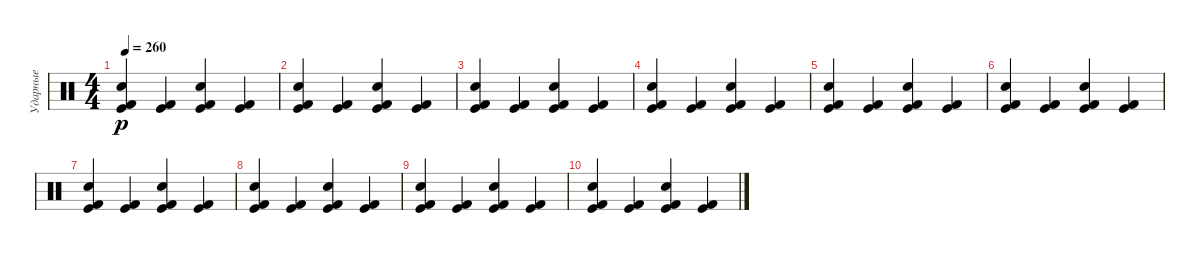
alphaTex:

\track ("Ударные" "Ударные") {instrument percussion}
\staff {score}
\articulation defaults
\ts (4 4)
\tempo 260
\clef neutral
\ks c
("Kick (hit) 2" "Kick (hit)" "Snare (hit) 2").4{dy p} ("Kick (hit)" "Kick (hit) 2").4 ("Kick (hit) 2" "Kick (hit)" "Snare (hit) 2").4 ("Kick (hit)" "Kick (hit) 2").4 |
("Kick (hit) 2" "Kick (hit)" "Snare (hit) 2").4 ("Kick (hit)" "Kick (hit) 2").4 ("Kick (hit) 2" "Kick (hit)" "Snare (hit) 2").4 ("Kick (hit)" "Kick (hit) 2").4 |
("Kick (hit) 2" "Kick (hit)" "Snare (hit) 2").4 ("Kick (hit)" "Kick (hit) 2").4 ("Kick (hit) 2" "Kick (hit)" "Snare (hit) 2").4 ("Kick (hit)" "Kick (hit) 2").4 |
("Kick (hit) 2" "Kick (hit)" "Snare (hit) 2").4 ("Kick (hit)" "Kick (hit) 2").4 ("Kick (hit) 2" "Kick (hit)" "Snare (hit) 2").4 ("Kick (hit)" "Kick (hit) 2").4 |
("Kick (hit) 2" "Kick (hit)" "Snare (hit) 2").4 ("Kick (hit)" "Kick (hit) 2").4 ("Kick (hit) 2" "Kick (hit)" "Snare (hit) 2").4 ("Kick (hit)" "Kick (hit) 2").4 |
("Kick (hit) 2" "Kick (hit)" "Snare (hit) 2").4 ("Kick (hit)" "Kick (hit) 2").4 ("Kick (hit) 2" "Kick (hit)" "Snare (hit) 2").4 ("Kick (hit)" "Kick (hit) 2").4 |
("Kick (hit) 2" "Kick (hit)" "Snare (hit) 2").4 ("Kick (hit)" "Kick (hit) 2").4 ("Kick (hit) 2" "Kick (hit)" "Snare (hit) 2").4 ("Kick (hit)" "Kick (hit) 2").4 |
("Kick (hit) 2" "Kick (hit)" "Snare (hit) 2").4 ("Kick (hit)" "Kick (hit) 2").4 ("Kick (hit) 2" "Kick (hit)" "Snare (hit) 2").4 ("Kick (hit)" "Kick (hit) 2").4 |
("Kick (hit) 2" "Kick (hit)" "Snare (hit) 2").4 ("Kick (hit)" "Kick (hit) 2").4 ("Kick (hit) 2" "Kick (hit)" "Snare (hit) 2").4 ("Kick (hit)" "Kick (hit) 2").4 |
("Kick (hit) 2" "Kick (hit)" "Snare (hit) 2").4 ("Kick (hit)" "Kick (hit) 2").4 ("Kick (hit) 2" "Kick (hit)" "Snare (hit) 2").4 ("Kick (hit)" "Kick (hit) 2").4
